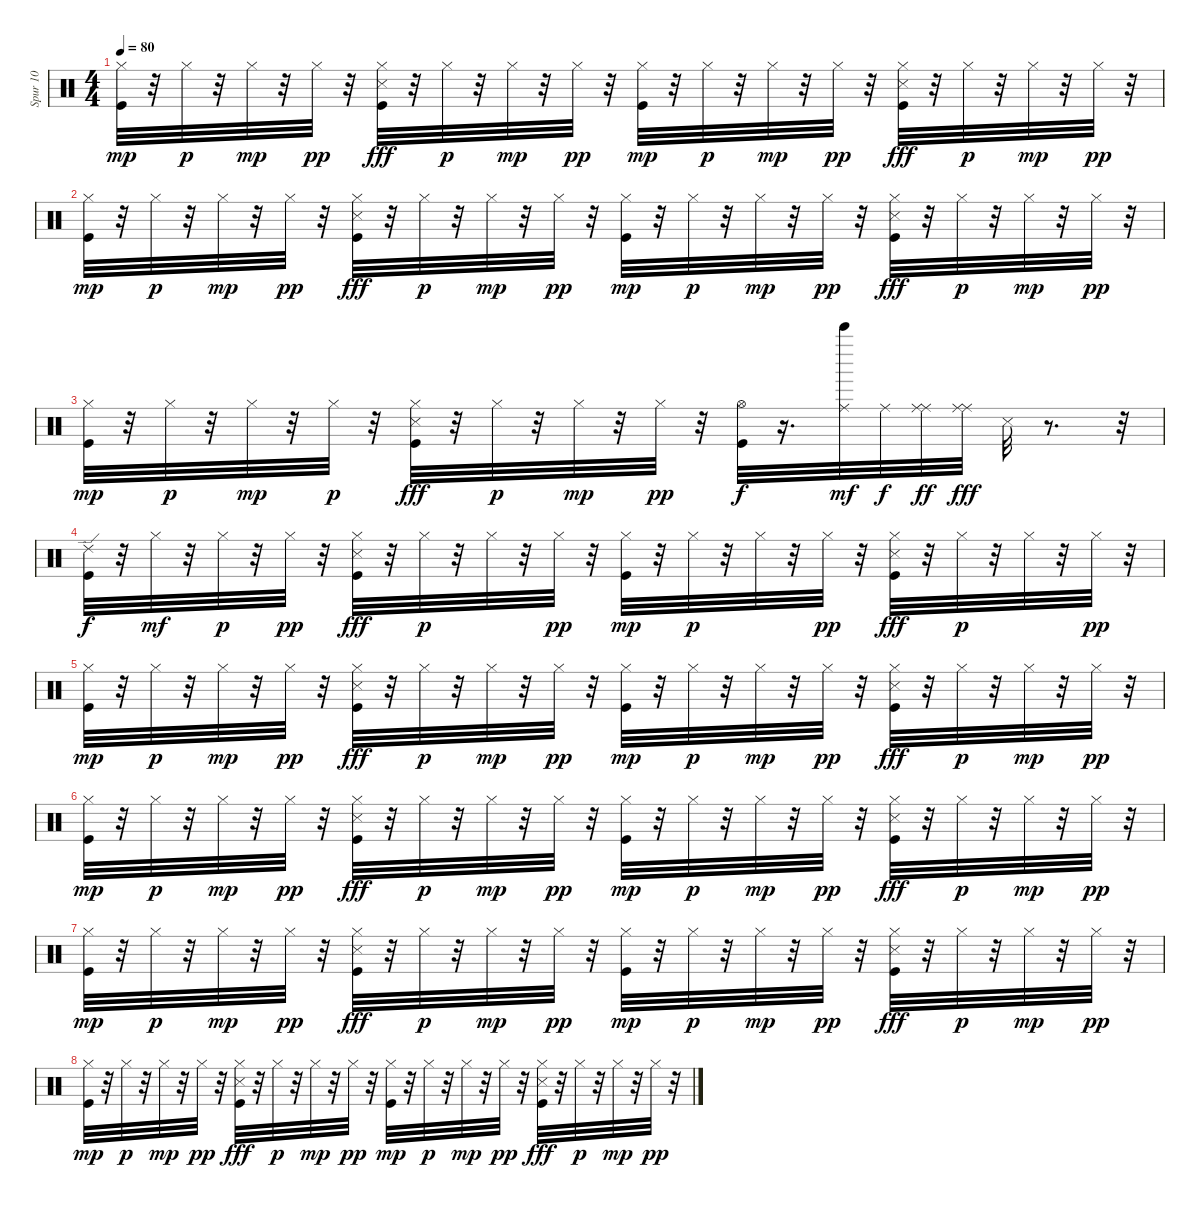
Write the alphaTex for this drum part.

\track ("Spur 10" "Spur 10") {instrument percussion}
\staff {score}
\articulation defaults
\ts (4 4)
\tempo 80
\clef neutral
\ks c
("Hi-Hat (closed)" "Kick (hit)").32{dy mp} r.32 "Hi-Hat (closed)".32{dy p} r.32 "Hi-Hat (closed)".32{dy mp} r.32 "Hi-Hat (closed)".32{dy pp} r.32 ("Hi-Hat (closed)" "Snare (side stick) 3" "Kick (hit)").32{dy fff} r.32 "Hi-Hat (closed)".32{dy p} r.32 "Hi-Hat (closed)".32{dy mp} r.32 "Hi-Hat (closed)".32{dy pp} r.32 ("Hi-Hat (closed)" "Kick (hit)").32{dy mp} r.32 "Hi-Hat (closed)".32{dy p} r.32 "Hi-Hat (closed)".32{dy mp} r.32 "Hi-Hat (closed)".32{dy pp} r.32 ("Hi-Hat (closed)" "Snare (side stick) 3" "Kick (hit)").32{dy fff} r.32 "Hi-Hat (closed)".32{dy p} r.32 "Hi-Hat (closed)".32{dy mp} r.32 "Hi-Hat (closed)".32{dy pp} r.32 |
("Hi-Hat (closed)" "Kick (hit)").32{dy mp} r.32 "Hi-Hat (closed)".32{dy p} r.32 "Hi-Hat (closed)".32{dy mp} r.32 "Hi-Hat (closed)".32{dy pp} r.32 ("Hi-Hat (closed)" "Snare (side stick) 3" "Kick (hit)").32{dy fff} r.32 "Hi-Hat (closed)".32{dy p} r.32 "Hi-Hat (closed)".32{dy mp} r.32 "Hi-Hat (closed)".32{dy pp} r.32 ("Hi-Hat (closed)" "Kick (hit)").32{dy mp} r.32 "Hi-Hat (closed)".32{dy p} r.32 "Hi-Hat (closed)".32{dy mp} r.32 "Hi-Hat (closed)".32{dy pp} r.32 ("Hi-Hat (closed)" "Snare (side stick) 3" "Kick (hit)").32{dy fff} r.32 "Hi-Hat (closed)".32{dy p} r.32 "Hi-Hat (closed)".32{dy mp} r.32 "Hi-Hat (closed)".32{dy pp} r.32 |
("Hi-Hat (closed)" "Kick (hit)").32{dy mp} r.32 "Hi-Hat (closed)".32{dy p} r.32 "Hi-Hat (closed)".32{dy mp} r.32 "Hi-Hat (closed)".32{dy p} r.32 ("Hi-Hat (closed)" "Snare (side stick) 3" "Kick (hit)").32{dy fff} r.32 "Hi-Hat (closed)".32{dy p} r.32 "Hi-Hat (closed)".32{dy mp} r.32 "Hi-Hat (closed)".32{dy pp} r.32 ("Hi-Hat (open)" "Kick (hit)").32{dy f} r.16{d} ("Bell Tree (hit)" "Ride (middle)").32{dy mf} "Ride (middle)".32{dy f} ("Ride (middle)" "Ride (middle)").32{dy ff} ("Ride (middle)" "Ride (middle)").32{dy fff} "Snare (side stick) 3".32 r.8{d} r.32 |
("Ride (edge) 2" "Kick (hit)").32{dy f} r.32 "Hi-Hat (closed)".32{dy mf} r.32 "Hi-Hat (closed)".32{dy p} r.32 "Hi-Hat (closed)".32{dy pp} r.32 ("Hi-Hat (closed)" "Snare (side stick) 3" "Kick (hit)").32{dy fff} r.32 "Hi-Hat (closed)".32{dy p} r.32 "Hi-Hat (closed)".32 r.32 "Hi-Hat (closed)".32{dy pp} r.32 ("Hi-Hat (closed)" "Kick (hit)").32{dy mp} r.32 "Hi-Hat (closed)".32{dy p} r.32 "Hi-Hat (closed)".32 r.32 "Hi-Hat (closed)".32{dy pp} r.32 ("Hi-Hat (closed)" "Snare (side stick) 3" "Kick (hit)").32{dy fff} r.32 "Hi-Hat (closed)".32{dy p} r.32 "Hi-Hat (closed)".32 r.32 "Hi-Hat (closed)".32{dy pp} r.32 |
("Hi-Hat (closed)" "Kick (hit)").32{dy mp} r.32 "Hi-Hat (closed)".32{dy p} r.32 "Hi-Hat (closed)".32{dy mp} r.32 "Hi-Hat (closed)".32{dy pp} r.32 ("Hi-Hat (closed)" "Snare (side stick) 3" "Kick (hit)").32{dy fff} r.32 "Hi-Hat (closed)".32{dy p} r.32 "Hi-Hat (closed)".32{dy mp} r.32 "Hi-Hat (closed)".32{dy pp} r.32 ("Hi-Hat (closed)" "Kick (hit)").32{dy mp} r.32 "Hi-Hat (closed)".32{dy p} r.32 "Hi-Hat (closed)".32{dy mp} r.32 "Hi-Hat (closed)".32{dy pp} r.32 ("Hi-Hat (closed)" "Snare (side stick) 3" "Kick (hit)").32{dy fff} r.32 "Hi-Hat (closed)".32{dy p} r.32 "Hi-Hat (closed)".32{dy mp} r.32 "Hi-Hat (closed)".32{dy pp} r.32 |
("Hi-Hat (closed)" "Kick (hit)").32{dy mp} r.32 "Hi-Hat (closed)".32{dy p} r.32 "Hi-Hat (closed)".32{dy mp} r.32 "Hi-Hat (closed)".32{dy pp} r.32 ("Hi-Hat (closed)" "Snare (side stick) 3" "Kick (hit)").32{dy fff} r.32 "Hi-Hat (closed)".32{dy p} r.32 "Hi-Hat (closed)".32{dy mp} r.32 "Hi-Hat (closed)".32{dy pp} r.32 ("Hi-Hat (closed)" "Kick (hit)").32{dy mp} r.32 "Hi-Hat (closed)".32{dy p} r.32 "Hi-Hat (closed)".32{dy mp} r.32 "Hi-Hat (closed)".32{dy pp} r.32 ("Hi-Hat (closed)" "Snare (side stick) 3" "Kick (hit)").32{dy fff} r.32 "Hi-Hat (closed)".32{dy p} r.32 "Hi-Hat (closed)".32{dy mp} r.32 "Hi-Hat (closed)".32{dy pp} r.32 |
("Hi-Hat (closed)" "Kick (hit)").32{dy mp} r.32 "Hi-Hat (closed)".32{dy p} r.32 "Hi-Hat (closed)".32{dy mp} r.32 "Hi-Hat (closed)".32{dy pp} r.32 ("Hi-Hat (closed)" "Snare (side stick) 3" "Kick (hit)").32{dy fff} r.32 "Hi-Hat (closed)".32{dy p} r.32 "Hi-Hat (closed)".32{dy mp} r.32 "Hi-Hat (closed)".32{dy pp} r.32 ("Hi-Hat (closed)" "Kick (hit)").32{dy mp} r.32 "Hi-Hat (closed)".32{dy p} r.32 "Hi-Hat (closed)".32{dy mp} r.32 "Hi-Hat (closed)".32{dy pp} r.32 ("Hi-Hat (closed)" "Snare (side stick) 3" "Kick (hit)").32{dy fff} r.32 "Hi-Hat (closed)".32{dy p} r.32 "Hi-Hat (closed)".32{dy mp} r.32 "Hi-Hat (closed)".32{dy pp} r.32 |
("Hi-Hat (closed)" "Kick (hit)").32{dy mp} r.32 "Hi-Hat (closed)".32{dy p} r.32 "Hi-Hat (closed)".32{dy mp} r.32 "Hi-Hat (closed)".32{dy pp} r.32 ("Hi-Hat (closed)" "Snare (side stick) 3" "Kick (hit)").32{dy fff} r.32 "Hi-Hat (closed)".32{dy p} r.32 "Hi-Hat (closed)".32{dy mp} r.32 "Hi-Hat (closed)".32{dy pp} r.32 ("Hi-Hat (closed)" "Kick (hit)").32{dy mp} r.32 "Hi-Hat (closed)".32{dy p} r.32 "Hi-Hat (closed)".32{dy mp} r.32 "Hi-Hat (closed)".32{dy pp} r.32 ("Hi-Hat (closed)" "Snare (side stick) 3" "Kick (hit)").32{dy fff} r.32 "Hi-Hat (closed)".32{dy p} r.32 "Hi-Hat (closed)".32{dy mp} r.32 "Hi-Hat (closed)".32{dy pp} r.32
